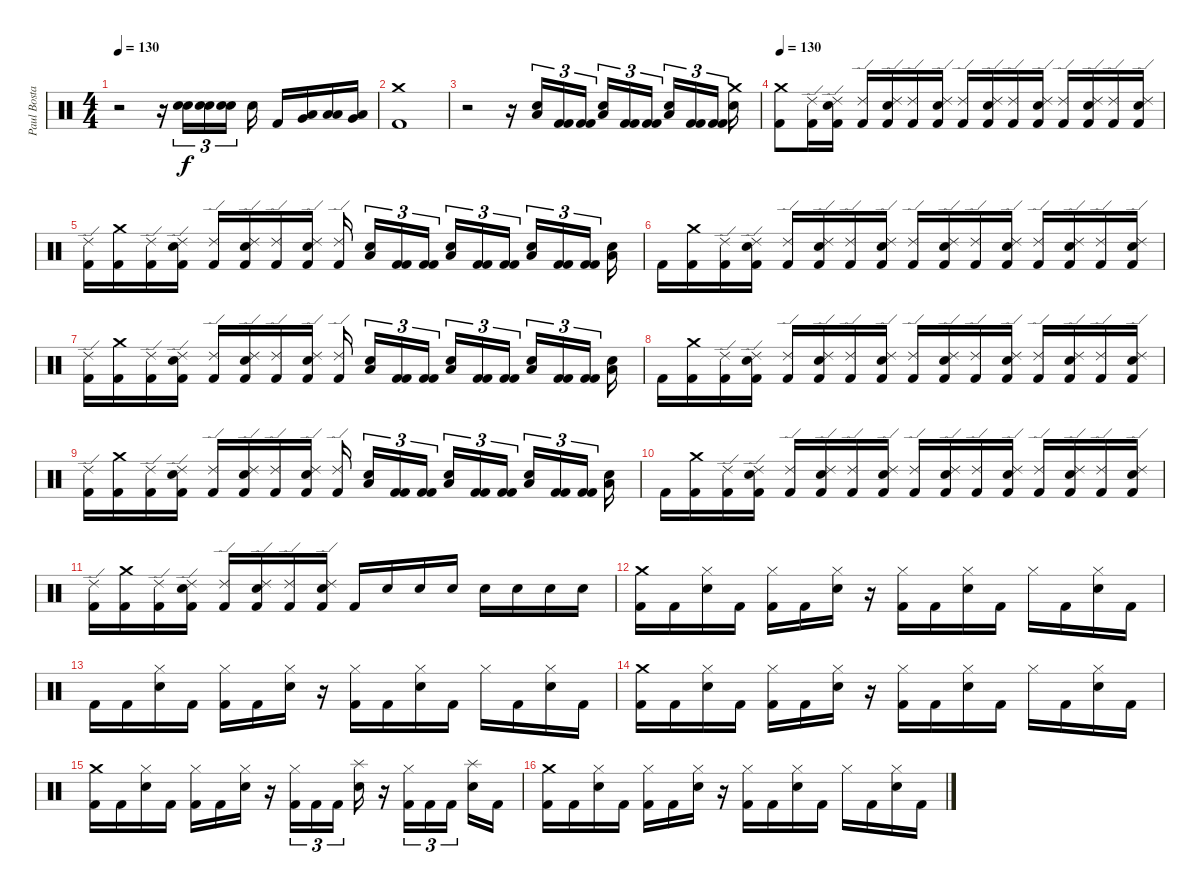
\track ("Paul Bostaph" "Paul Bosta") {instrument percussion}
\staff {score}
\articulation defaults
\ts (4 4)
\tempo 130
\clef neutral
\ks c
r.2{dy f} r.16 ("Snare (hit) 2" "Snare (hit) 2").16{tu (3 2)} ("Snare (hit) 2" "Snare (hit) 2").16{tu (3 2)} ("Snare (hit) 2" "Snare (hit) 2").16{tu (3 2) beam splitsecondary} "Snare (hit) 2".16 "Kick (hit) 2".16 ("Low Floor Tom (hit)" "Very Low Tom (hit)").16 ("Low Floor Tom (hit)" "Low Floor Tom (hit)").16 ("Low Floor Tom (hit)" "Very Low Tom (hit)").16 |
("Crash medium (hit)" "Kick (hit) 2").1 |
r.2 r.16 ("Snare (hit) 2" "Low Floor Tom (hit)").16{tu (3 2)} ("Kick (hit) 2" "Kick (hit) 2").16{tu (3 2)} ("Kick (hit) 2" "Kick (hit) 2").16{tu (3 2) beam splitsecondary} ("Snare (hit) 2" "Low Floor Tom (hit)").16{tu (3 2)} ("Kick (hit) 2" "Kick (hit) 2").16{tu (3 2)} ("Kick (hit) 2" "Kick (hit) 2").16{tu (3 2) beam splitsecondary} ("Snare (hit) 2" "Low Floor Tom (hit)").16{tu (3 2)} ("Kick (hit) 2" "Kick (hit) 2").16{tu (3 2)} ("Kick (hit) 2" "Kick (hit) 2").16{tu (3 2) beam splitsecondary} ("Crash medium (hit)" "Snare (hit) 2").16 |
\tempo 130
("Crash medium (hit)" "Kick (hit) 2").8 ("Ride (edge) 2" "Kick (hit) 2").16 ("Ride (edge) 2" "Snare (hit) 2" "Kick (hit) 2").16 ("Ride (edge) 2" "Kick (hit) 2").16 ("Ride (edge) 2" "Snare (hit) 2" "Kick (hit) 2").16 ("Ride (edge) 2" "Kick (hit) 2").16 ("Ride (edge) 2" "Snare (hit) 2" "Kick (hit) 2").16 ("Ride (edge) 2" "Kick (hit) 2").16 ("Ride (edge) 2" "Snare (hit) 2" "Kick (hit) 2").16 ("Ride (edge) 2" "Kick (hit) 2").16 ("Ride (edge) 2" "Snare (hit) 2" "Kick (hit) 2").16 ("Ride (edge) 2" "Kick (hit) 2").16 ("Ride (edge) 2" "Snare (hit) 2" "Kick (hit) 2").16 ("Ride (edge) 2" "Kick (hit) 2").16 ("Ride (edge) 2" "Snare (hit) 2" "Kick (hit) 2").16 |
("Ride (edge) 2" "Kick (hit) 2").16 ("Crash medium (hit)" "Kick (hit) 2").16 ("Ride (edge) 2" "Kick (hit) 2").16 ("Ride (edge) 2" "Snare (hit) 2" "Kick (hit) 2").16 ("Ride (edge) 2" "Kick (hit) 2").16 ("Ride (edge) 2" "Snare (hit) 2" "Kick (hit) 2").16 ("Ride (edge) 2" "Kick (hit) 2").16 ("Ride (edge) 2" "Snare (hit) 2" "Kick (hit) 2").16 ("Ride (edge) 2" "Kick (hit) 2").16{beam splitsecondary} ("Snare (hit) 2" "Low Floor Tom (hit)").16{tu (3 2)} ("Kick (hit) 2" "Kick (hit) 2").16{tu (3 2)} ("Kick (hit) 2" "Kick (hit) 2").16{tu (3 2) beam splitsecondary} ("Snare (hit) 2" "Low Floor Tom (hit)").16{tu (3 2)} ("Kick (hit) 2" "Kick (hit) 2").16{tu (3 2)} ("Kick (hit) 2" "Kick (hit) 2").16{tu (3 2) beam splitsecondary} ("Snare (hit) 2" "Low Floor Tom (hit)").16{tu (3 2)} ("Kick (hit) 2" "Kick (hit) 2").16{tu (3 2)} ("Kick (hit) 2" "Kick (hit) 2").16{tu (3 2) beam splitsecondary} ("Snare (hit) 2" "Low Floor Tom (hit)").16 |
"Kick (hit) 2".16 ("Crash medium (hit)" "Kick (hit) 2").16 ("Ride (edge) 2" "Kick (hit) 2").16 ("Ride (edge) 2" "Snare (hit) 2" "Kick (hit) 2").16 ("Ride (edge) 2" "Kick (hit) 2").16 ("Ride (edge) 2" "Snare (hit) 2" "Kick (hit) 2").16 ("Ride (edge) 2" "Kick (hit) 2").16 ("Ride (edge) 2" "Snare (hit) 2" "Kick (hit) 2").16 ("Ride (edge) 2" "Kick (hit) 2").16 ("Ride (edge) 2" "Snare (hit) 2" "Kick (hit) 2").16 ("Ride (edge) 2" "Kick (hit) 2").16 ("Ride (edge) 2" "Snare (hit) 2" "Kick (hit) 2").16 ("Ride (edge) 2" "Kick (hit) 2").16 ("Ride (edge) 2" "Snare (hit) 2" "Kick (hit) 2").16 ("Ride (edge) 2" "Kick (hit) 2").16 ("Ride (edge) 2" "Snare (hit) 2" "Kick (hit) 2").16 |
("Ride (edge) 2" "Kick (hit) 2").16 ("Crash medium (hit)" "Kick (hit) 2").16 ("Ride (edge) 2" "Kick (hit) 2").16 ("Ride (edge) 2" "Snare (hit) 2" "Kick (hit) 2").16 ("Ride (edge) 2" "Kick (hit) 2").16 ("Ride (edge) 2" "Snare (hit) 2" "Kick (hit) 2").16 ("Ride (edge) 2" "Kick (hit) 2").16 ("Ride (edge) 2" "Snare (hit) 2" "Kick (hit) 2").16 ("Ride (edge) 2" "Kick (hit) 2").16{beam splitsecondary} ("Snare (hit) 2" "Low Floor Tom (hit)").16{tu (3 2)} ("Kick (hit) 2" "Kick (hit) 2").16{tu (3 2)} ("Kick (hit) 2" "Kick (hit) 2").16{tu (3 2) beam splitsecondary} ("Snare (hit) 2" "Low Floor Tom (hit)").16{tu (3 2)} ("Kick (hit) 2" "Kick (hit) 2").16{tu (3 2)} ("Kick (hit) 2" "Kick (hit) 2").16{tu (3 2) beam splitsecondary} ("Snare (hit) 2" "Low Floor Tom (hit)").16{tu (3 2)} ("Kick (hit) 2" "Kick (hit) 2").16{tu (3 2)} ("Kick (hit) 2" "Kick (hit) 2").16{tu (3 2) beam splitsecondary} ("Snare (hit) 2" "Low Floor Tom (hit)").16 |
"Kick (hit) 2".16 ("Crash medium (hit)" "Kick (hit) 2").16 ("Ride (edge) 2" "Kick (hit) 2").16 ("Ride (edge) 2" "Snare (hit) 2" "Kick (hit) 2").16 ("Ride (edge) 2" "Kick (hit) 2").16 ("Ride (edge) 2" "Snare (hit) 2" "Kick (hit) 2").16 ("Ride (edge) 2" "Kick (hit) 2").16 ("Ride (edge) 2" "Snare (hit) 2" "Kick (hit) 2").16 ("Ride (edge) 2" "Kick (hit) 2").16 ("Ride (edge) 2" "Snare (hit) 2" "Kick (hit) 2").16 ("Ride (edge) 2" "Kick (hit) 2").16 ("Ride (edge) 2" "Snare (hit) 2" "Kick (hit) 2").16 ("Ride (edge) 2" "Kick (hit) 2").16 ("Ride (edge) 2" "Snare (hit) 2" "Kick (hit) 2").16 ("Ride (edge) 2" "Kick (hit) 2").16 ("Ride (edge) 2" "Snare (hit) 2" "Kick (hit) 2").16 |
("Ride (edge) 2" "Kick (hit) 2").16 ("Crash medium (hit)" "Kick (hit) 2").16 ("Ride (edge) 2" "Kick (hit) 2").16 ("Ride (edge) 2" "Snare (hit) 2" "Kick (hit) 2").16 ("Ride (edge) 2" "Kick (hit) 2").16 ("Ride (edge) 2" "Snare (hit) 2" "Kick (hit) 2").16 ("Ride (edge) 2" "Kick (hit) 2").16 ("Ride (edge) 2" "Snare (hit) 2" "Kick (hit) 2").16 ("Ride (edge) 2" "Kick (hit) 2").16{beam splitsecondary} ("Snare (hit) 2" "Low Floor Tom (hit)").16{tu (3 2)} ("Kick (hit) 2" "Kick (hit) 2").16{tu (3 2)} ("Kick (hit) 2" "Kick (hit) 2").16{tu (3 2) beam splitsecondary} ("Snare (hit) 2" "Low Floor Tom (hit)").16{tu (3 2)} ("Kick (hit) 2" "Kick (hit) 2").16{tu (3 2)} ("Kick (hit) 2" "Kick (hit) 2").16{tu (3 2) beam splitsecondary} ("Snare (hit) 2" "Low Floor Tom (hit)").16{tu (3 2)} ("Kick (hit) 2" "Kick (hit) 2").16{tu (3 2)} ("Kick (hit) 2" "Kick (hit) 2").16{tu (3 2) beam splitsecondary} ("Snare (hit) 2" "Low Floor Tom (hit)").16 |
"Kick (hit) 2".16 ("Crash medium (hit)" "Kick (hit) 2").16 ("Ride (edge) 2" "Kick (hit) 2").16 ("Ride (edge) 2" "Snare (hit) 2" "Kick (hit) 2").16 ("Ride (edge) 2" "Kick (hit) 2").16 ("Ride (edge) 2" "Snare (hit) 2" "Kick (hit) 2").16 ("Ride (edge) 2" "Kick (hit) 2").16 ("Ride (edge) 2" "Snare (hit) 2" "Kick (hit) 2").16 ("Ride (edge) 2" "Kick (hit) 2").16 ("Ride (edge) 2" "Snare (hit) 2" "Kick (hit) 2").16 ("Ride (edge) 2" "Kick (hit) 2").16 ("Ride (edge) 2" "Snare (hit) 2" "Kick (hit) 2").16 ("Ride (edge) 2" "Kick (hit) 2").16 ("Ride (edge) 2" "Snare (hit) 2" "Kick (hit) 2").16 ("Ride (edge) 2" "Kick (hit) 2").16 ("Ride (edge) 2" "Snare (hit) 2" "Kick (hit) 2").16 |
("Ride (edge) 2" "Kick (hit) 2").16 ("Crash medium (hit)" "Kick (hit) 2").16 ("Ride (edge) 2" "Kick (hit) 2").16 ("Ride (edge) 2" "Snare (hit) 2" "Kick (hit) 2").16 ("Ride (edge) 2" "Kick (hit) 2").16 ("Ride (edge) 2" "Snare (hit) 2" "Kick (hit) 2").16 ("Ride (edge) 2" "Kick (hit) 2").16 ("Ride (edge) 2" "Snare (hit) 2" "Kick (hit) 2").16 "Kick (hit) 2".16 "Snare (hit) 2".16 "Snare (hit) 2".16 "Snare (hit) 2".16 "Snare (hit) 2".16 "Snare (hit) 2".16 "Snare (hit) 2".16 "Snare (hit) 2".16 |
("Crash medium (hit)" "Kick (hit) 2").16 "Kick (hit) 2".16 ("Hi-Hat (closed)" "Snare (hit) 2").16 "Kick (hit) 2".16 ("Hi-Hat (closed)" "Kick (hit) 2").16 "Kick (hit) 2".16 ("Hi-Hat (closed)" "Snare (hit) 2").16 r.16 ("Hi-Hat (closed)" "Kick (hit) 2").16 "Kick (hit) 2".16 ("Hi-Hat (closed)" "Snare (hit) 2").16 "Kick (hit) 2".16 "Hi-Hat (closed)".16 "Kick (hit) 2".16 ("Hi-Hat (closed)" "Snare (hit) 2").16 "Kick (hit) 2".16 |
"Kick (hit) 2".16 "Kick (hit) 2".16 ("Hi-Hat (closed)" "Snare (hit) 2").16 "Kick (hit) 2".16 ("Hi-Hat (closed)" "Kick (hit) 2").16 "Kick (hit) 2".16 ("Hi-Hat (closed)" "Snare (hit) 2").16 r.16 ("Hi-Hat (closed)" "Kick (hit) 2").16 "Kick (hit) 2".16 ("Hi-Hat (closed)" "Snare (hit) 2").16 "Kick (hit) 2".16 "Hi-Hat (closed)".16 "Kick (hit) 2".16 ("Hi-Hat (closed)" "Snare (hit) 2").16 "Kick (hit) 2".16 |
("Crash medium (hit)" "Kick (hit) 2").16 "Kick (hit) 2".16 ("Hi-Hat (closed)" "Snare (hit) 2").16 "Kick (hit) 2".16 ("Hi-Hat (closed)" "Kick (hit) 2").16 "Kick (hit) 2".16 ("Hi-Hat (closed)" "Snare (hit) 2").16 r.16 ("Hi-Hat (closed)" "Kick (hit) 2").16 "Kick (hit) 2".16 ("Hi-Hat (closed)" "Snare (hit) 2").16 "Kick (hit) 2".16 "Hi-Hat (closed)".16 "Kick (hit) 2".16 ("Hi-Hat (closed)" "Snare (hit) 2").16 "Kick (hit) 2".16 |
("Crash medium (hit)" "Kick (hit) 2").16 "Kick (hit) 2".16 ("Hi-Hat (closed)" "Snare (hit) 2").16 "Kick (hit) 2".16 ("Hi-Hat (closed)" "Kick (hit) 2").16 "Kick (hit) 2".16 ("Hi-Hat (closed)" "Snare (hit) 2").16 r.16 ("Hi-Hat (closed)" "Kick (hit) 2").16{tu (3 2)} "Kick (hit) 2".16{tu (3 2)} "Kick (hit) 2".16{tu (3 2) beam splitsecondary} ("Splash (hit)" "Snare (hit) 2").16 r.16 ("Hi-Hat (closed)" "Kick (hit) 2").16{tu (3 2)} "Kick (hit) 2".16{tu (3 2)} "Kick (hit) 2".16{tu (3 2) beam splitsecondary} ("Splash (hit)" "Snare (hit) 2").16 "Kick (hit) 2".16 |
("Crash medium (hit)" "Kick (hit) 2").16 "Kick (hit) 2".16 ("Hi-Hat (closed)" "Snare (hit) 2").16 "Kick (hit) 2".16 ("Hi-Hat (closed)" "Kick (hit) 2").16 "Kick (hit) 2".16 ("Hi-Hat (closed)" "Snare (hit) 2").16 r.16 ("Hi-Hat (closed)" "Kick (hit) 2").16 "Kick (hit) 2".16 ("Hi-Hat (closed)" "Snare (hit) 2").16 "Kick (hit) 2".16 "Hi-Hat (closed)".16 "Kick (hit) 2".16 ("Hi-Hat (closed)" "Snare (hit) 2").16 "Kick (hit) 2".16
